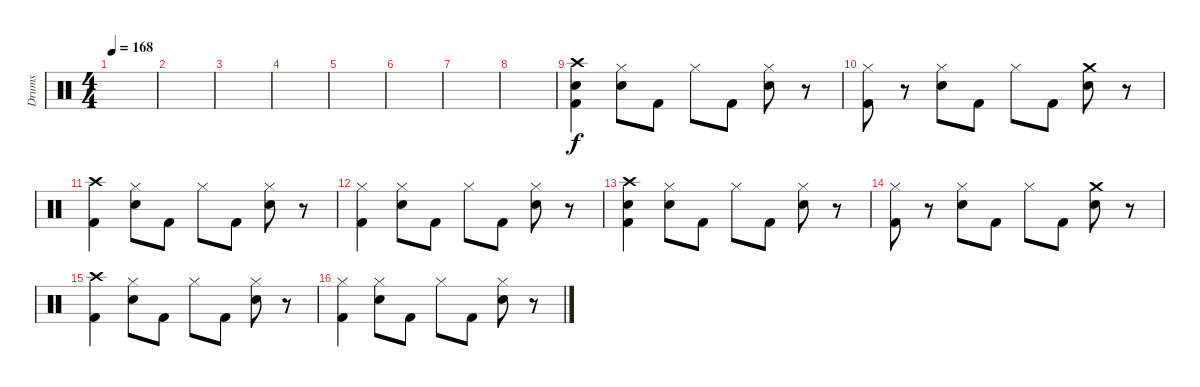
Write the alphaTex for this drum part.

\track ("Drums" "Drums") {instrument percussion}
\staff {score}
\articulation defaults
\ts (4 4)
\tempo 168
\clef neutral
\ks c
|
|
|
|
|
|
|
|
("Crash high (hit)" "Snare (hit) 2" "Kick (hit) 2").4 ("Hi-Hat (closed)" "Snare (hit) 2").8 "Kick (hit) 2".8 "Hi-Hat (closed)".8 "Kick (hit) 2".8 ("Hi-Hat (closed)" "Snare (hit) 2").8 r.8 |
("Hi-Hat (closed)" "Kick (hit) 2").8 r.8 ("Hi-Hat (closed)" "Snare (hit) 2").8 "Kick (hit) 2".8 "Hi-Hat (closed)".8 "Kick (hit) 2".8 ("Crash medium (hit)" "Snare (hit) 2").8 r.8 |
("Crash high (hit)" "Kick (hit) 2").4 ("Hi-Hat (closed)" "Snare (hit) 2").8 "Kick (hit) 2".8 "Hi-Hat (closed)".8 "Kick (hit) 2".8 ("Hi-Hat (closed)" "Snare (hit) 2").8 r.8 |
("Hi-Hat (closed)" "Kick (hit) 2").4 ("Hi-Hat (closed)" "Snare (hit) 2").8 "Kick (hit) 2".8 "Hi-Hat (closed)".8 "Kick (hit) 2".8 ("Hi-Hat (closed)" "Snare (hit) 2").8 r.8 |
("Crash high (hit)" "Snare (hit) 2" "Kick (hit) 2").4 ("Hi-Hat (closed)" "Snare (hit) 2").8 "Kick (hit) 2".8 "Hi-Hat (closed)".8 "Kick (hit) 2".8 ("Hi-Hat (closed)" "Snare (hit) 2").8 r.8 |
("Hi-Hat (closed)" "Kick (hit) 2").8 r.8 ("Hi-Hat (closed)" "Snare (hit) 2").8 "Kick (hit) 2".8 "Hi-Hat (closed)".8 "Kick (hit) 2".8 ("Crash medium (hit)" "Snare (hit) 2").8 r.8 |
("Crash high (hit)" "Kick (hit) 2").4 ("Hi-Hat (closed)" "Snare (hit) 2").8 "Kick (hit) 2".8 "Hi-Hat (closed)".8 "Kick (hit) 2".8 ("Hi-Hat (closed)" "Snare (hit) 2").8 r.8 |
("Hi-Hat (closed)" "Kick (hit) 2").4 ("Hi-Hat (closed)" "Snare (hit) 2").8 "Kick (hit) 2".8 "Hi-Hat (closed)".8 "Kick (hit) 2".8 ("Hi-Hat (closed)" "Snare (hit) 2").8 r.8
